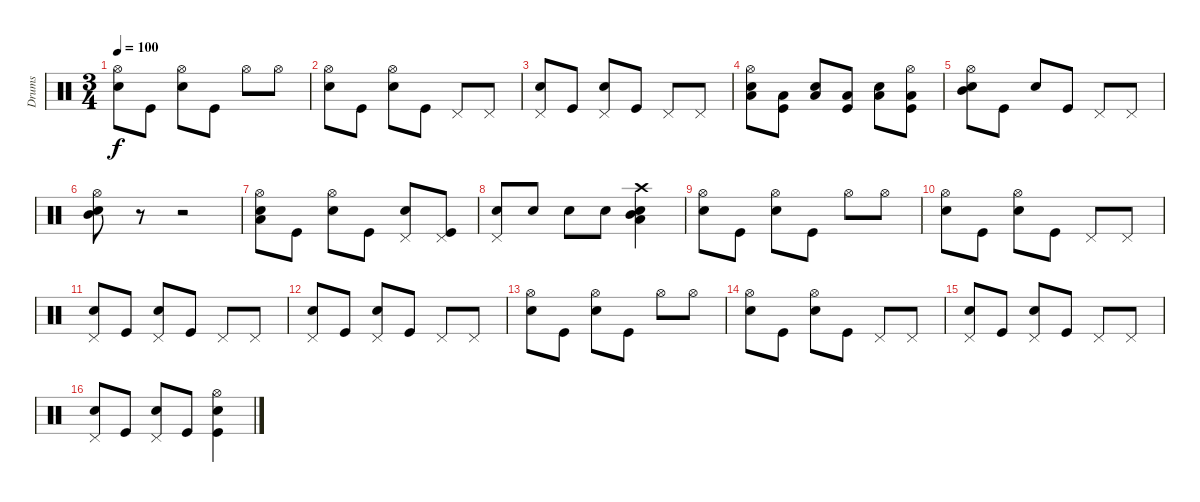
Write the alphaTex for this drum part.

\track ("Drums" "Drums") {instrument percussion}
\staff {score}
\articulation defaults
\ts (3 4)
\tempo 100
\clef neutral
\ks c
("Hi-Hat (open)" "Snare (hit) 2").8{dy f} "Kick (hit)".8 ("Hi-Hat (open)" "Snare (hit) 2").8 "Kick (hit)".8 "Hi-Hat (open)".8 "Hi-Hat (open)".8 |
("Hi-Hat (open)" "Snare (hit) 2").8 "Kick (hit)".8 ("Hi-Hat (open)" "Snare (hit) 2").8 "Kick (hit)".8 "Pedal Hi-Hat (hit)".8 "Pedal Hi-Hat (hit)".8 |
("Pedal Hi-Hat (hit)" "Snare (hit) 2").8 "Kick (hit)".8 ("Pedal Hi-Hat (hit)" "Snare (hit) 2").8 "Kick (hit)".8 "Pedal Hi-Hat (hit)".8 "Pedal Hi-Hat (hit)".8 |
("Hi-Hat (open)" "Low Tom (hit)" "Snare (hit) 2").8 ("Low Tom (hit)" "Kick (hit)").8 ("Low Tom (hit)" "Snare (hit) 2").8 ("Low Tom (hit)" "Kick (hit)").8 ("Low Tom (hit)" "Snare (hit) 2").8 ("Hi-Hat (open)" "Low Tom (hit)" "Kick (hit)").8 |
("Hi-Hat (open)" "Mid Tom (hit)" "Snare (hit) 2").8 "Kick (hit)".8 "Snare (hit) 2".8 "Kick (hit)".8 "Pedal Hi-Hat (hit)".8 "Pedal Hi-Hat (hit)".8 |
("Hi-Hat (open)" "Mid Tom (hit)" "Snare (hit) 2").8 r.8 r.2 |
("Hi-Hat (open)" "Low Tom (hit)" "Snare (hit) 2").8 "Kick (hit)".8 ("Hi-Hat (open)" "Snare (hit) 2").8 "Kick (hit)".8 ("Pedal Hi-Hat (hit)" "Snare (hit) 2").8 ("Pedal Hi-Hat (hit)" "Kick (hit)").8 |
("Pedal Hi-Hat (hit)" "Snare (hit) 2").8 "Snare (hit) 2".8 "Snare (hit) 2".8 "Snare (hit) 2".8 ("Crash high (hit)" "Mid Tom (hit)" "Low Tom (hit)" "Snare (hit) 2").4 |
("Hi-Hat (open)" "Snare (hit) 2").8 "Kick (hit)".8 ("Hi-Hat (open)" "Snare (hit) 2").8 "Kick (hit)".8 "Hi-Hat (open)".8 "Hi-Hat (open)".8 |
("Hi-Hat (open)" "Snare (hit) 2").8 "Kick (hit)".8 ("Hi-Hat (open)" "Snare (hit) 2").8 "Kick (hit)".8 "Pedal Hi-Hat (hit)".8 "Pedal Hi-Hat (hit)".8 |
("Pedal Hi-Hat (hit)" "Snare (hit) 2").8 "Kick (hit)".8 ("Pedal Hi-Hat (hit)" "Snare (hit) 2").8 "Kick (hit)".8 "Pedal Hi-Hat (hit)".8 "Pedal Hi-Hat (hit)".8 |
("Pedal Hi-Hat (hit)" "Snare (hit) 2").8 "Kick (hit)".8 ("Pedal Hi-Hat (hit)" "Snare (hit) 2").8 "Kick (hit)".8 "Pedal Hi-Hat (hit)".8 "Pedal Hi-Hat (hit)".8 |
("Hi-Hat (open)" "Snare (hit) 2").8 "Kick (hit)".8 ("Hi-Hat (open)" "Snare (hit) 2").8 "Kick (hit)".8 "Hi-Hat (open)".8 "Hi-Hat (open)".8 |
("Hi-Hat (open)" "Snare (hit) 2").8 "Kick (hit)".8 ("Hi-Hat (open)" "Snare (hit) 2").8 "Kick (hit)".8 "Pedal Hi-Hat (hit)".8 "Pedal Hi-Hat (hit)".8 |
("Pedal Hi-Hat (hit)" "Snare (hit) 2").8 "Kick (hit)".8 ("Pedal Hi-Hat (hit)" "Snare (hit) 2").8 "Kick (hit)".8 "Pedal Hi-Hat (hit)".8 "Pedal Hi-Hat (hit)".8 |
("Pedal Hi-Hat (hit)" "Snare (hit) 2").8 "Kick (hit)".8 ("Pedal Hi-Hat (hit)" "Snare (hit) 2").8 "Kick (hit)".8 ("Hi-Hat (open)" "Snare (hit) 2" "Kick (hit)").4
